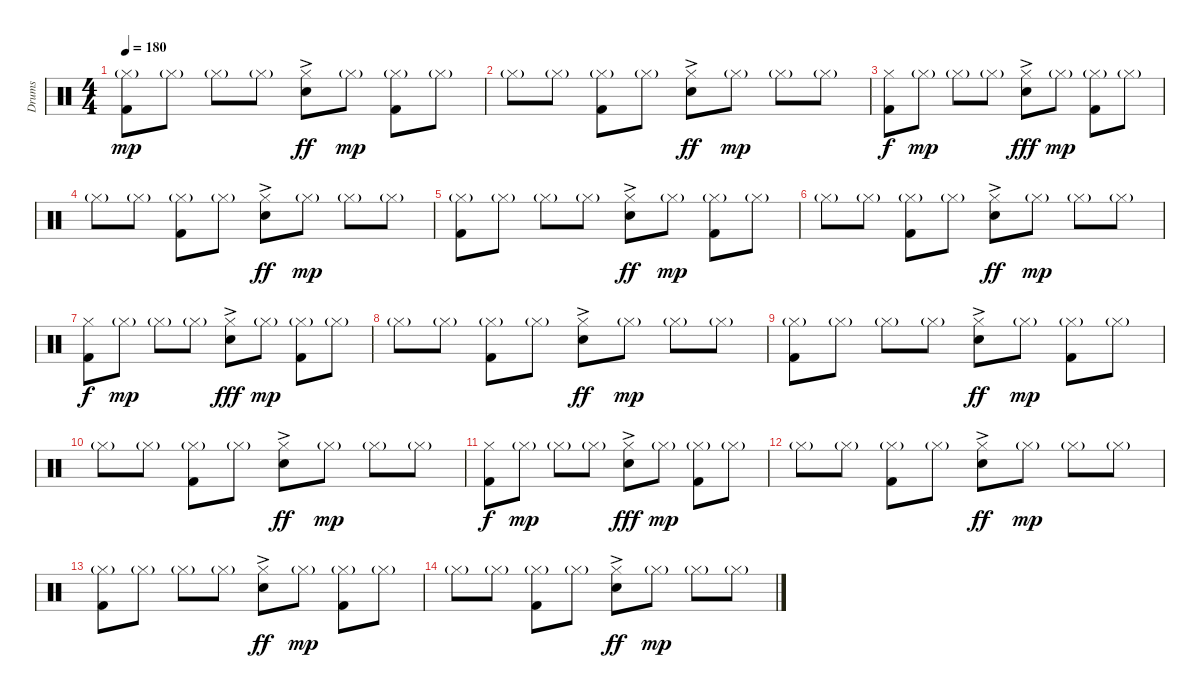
\track ("Drums" "Drums") {instrument percussion}
\staff {score}
\articulation defaults
\ts (4 4)
\tempo 180
\clef neutral
\ks c
("Hi-Hat (closed)"{g} "Kick (hit) 2").8{dy mp} "Hi-Hat (closed)"{g}.8 "Hi-Hat (closed)"{g}.8 "Hi-Hat (closed)"{g}.8 ("Hi-Hat (closed)"{ac} "Snare (hit) 2"{ac}).8{dy ff} "Hi-Hat (closed)"{g}.8{dy mp} ("Hi-Hat (closed)"{g} "Kick (hit) 2").8 "Hi-Hat (closed)"{g}.8 |
"Hi-Hat (closed)"{g}.8 "Hi-Hat (closed)"{g}.8 ("Hi-Hat (closed)"{g} "Kick (hit) 2").8 "Hi-Hat (closed)"{g}.8 ("Hi-Hat (closed)"{ac} "Snare (hit) 2"{ac}).8{dy ff} "Hi-Hat (closed)"{g}.8{dy mp} "Hi-Hat (closed)"{g}.8 "Hi-Hat (closed)"{g}.8 |
("Hi-Hat (closed)" "Kick (hit) 2").8{dy f} "Hi-Hat (closed)"{g}.8{dy mp} "Hi-Hat (closed)"{g}.8 "Hi-Hat (closed)"{g}.8 ("Hi-Hat (closed)"{ac} "Snare (hit) 2"{ac}).8{dy fff} "Hi-Hat (closed)"{g}.8{dy mp} ("Hi-Hat (closed)"{g} "Kick (hit) 2").8 "Hi-Hat (closed)"{g}.8 |
"Hi-Hat (closed)"{g}.8 "Hi-Hat (closed)"{g}.8 ("Hi-Hat (closed)"{g} "Kick (hit) 2").8 "Hi-Hat (closed)"{g}.8 ("Hi-Hat (closed)"{ac} "Snare (hit) 2"{ac}).8{dy ff} "Hi-Hat (closed)"{g}.8{dy mp} "Hi-Hat (closed)"{g}.8 "Hi-Hat (closed)"{g}.8 |
("Hi-Hat (closed)"{g} "Kick (hit) 2").8 "Hi-Hat (closed)"{g}.8 "Hi-Hat (closed)"{g}.8 "Hi-Hat (closed)"{g}.8 ("Hi-Hat (closed)"{ac} "Snare (hit) 2"{ac}).8{dy ff} "Hi-Hat (closed)"{g}.8{dy mp} ("Hi-Hat (closed)"{g} "Kick (hit) 2").8 "Hi-Hat (closed)"{g}.8 |
"Hi-Hat (closed)"{g}.8 "Hi-Hat (closed)"{g}.8 ("Hi-Hat (closed)"{g} "Kick (hit) 2").8 "Hi-Hat (closed)"{g}.8 ("Hi-Hat (closed)"{ac} "Snare (hit) 2"{ac}).8{dy ff} "Hi-Hat (closed)"{g}.8{dy mp} "Hi-Hat (closed)"{g}.8 "Hi-Hat (closed)"{g}.8 |
("Hi-Hat (closed)" "Kick (hit) 2").8{dy f} "Hi-Hat (closed)"{g}.8{dy mp} "Hi-Hat (closed)"{g}.8 "Hi-Hat (closed)"{g}.8 ("Hi-Hat (closed)"{ac} "Snare (hit) 2"{ac}).8{dy fff} "Hi-Hat (closed)"{g}.8{dy mp} ("Hi-Hat (closed)"{g} "Kick (hit) 2").8 "Hi-Hat (closed)"{g}.8 |
"Hi-Hat (closed)"{g}.8 "Hi-Hat (closed)"{g}.8 ("Hi-Hat (closed)"{g} "Kick (hit) 2").8 "Hi-Hat (closed)"{g}.8 ("Hi-Hat (closed)"{ac} "Snare (hit) 2"{ac}).8{dy ff} "Hi-Hat (closed)"{g}.8{dy mp} "Hi-Hat (closed)"{g}.8 "Hi-Hat (closed)"{g}.8 |
("Hi-Hat (closed)"{g} "Kick (hit) 2").8 "Hi-Hat (closed)"{g}.8 "Hi-Hat (closed)"{g}.8 "Hi-Hat (closed)"{g}.8 ("Hi-Hat (closed)"{ac} "Snare (hit) 2"{ac}).8{dy ff} "Hi-Hat (closed)"{g}.8{dy mp} ("Hi-Hat (closed)"{g} "Kick (hit) 2").8 "Hi-Hat (closed)"{g}.8 |
"Hi-Hat (closed)"{g}.8 "Hi-Hat (closed)"{g}.8 ("Hi-Hat (closed)"{g} "Kick (hit) 2").8 "Hi-Hat (closed)"{g}.8 ("Hi-Hat (closed)"{ac} "Snare (hit) 2"{ac}).8{dy ff} "Hi-Hat (closed)"{g}.8{dy mp} "Hi-Hat (closed)"{g}.8 "Hi-Hat (closed)"{g}.8 |
("Hi-Hat (closed)" "Kick (hit) 2").8{dy f} "Hi-Hat (closed)"{g}.8{dy mp} "Hi-Hat (closed)"{g}.8 "Hi-Hat (closed)"{g}.8 ("Hi-Hat (closed)"{ac} "Snare (hit) 2"{ac}).8{dy fff} "Hi-Hat (closed)"{g}.8{dy mp} ("Hi-Hat (closed)"{g} "Kick (hit) 2").8 "Hi-Hat (closed)"{g}.8 |
"Hi-Hat (closed)"{g}.8 "Hi-Hat (closed)"{g}.8 ("Hi-Hat (closed)"{g} "Kick (hit) 2").8 "Hi-Hat (closed)"{g}.8 ("Hi-Hat (closed)"{ac} "Snare (hit) 2"{ac}).8{dy ff} "Hi-Hat (closed)"{g}.8{dy mp} "Hi-Hat (closed)"{g}.8 "Hi-Hat (closed)"{g}.8 |
("Hi-Hat (closed)"{g} "Kick (hit) 2").8 "Hi-Hat (closed)"{g}.8 "Hi-Hat (closed)"{g}.8 "Hi-Hat (closed)"{g}.8 ("Hi-Hat (closed)"{ac} "Snare (hit) 2"{ac}).8{dy ff} "Hi-Hat (closed)"{g}.8{dy mp} ("Hi-Hat (closed)"{g} "Kick (hit) 2").8 "Hi-Hat (closed)"{g}.8 |
"Hi-Hat (closed)"{g}.8 "Hi-Hat (closed)"{g}.8 ("Hi-Hat (closed)"{g} "Kick (hit) 2").8 "Hi-Hat (closed)"{g}.8 ("Hi-Hat (closed)"{ac} "Snare (hit) 2"{ac}).8{dy ff} "Hi-Hat (closed)"{g}.8{dy mp} "Hi-Hat (closed)"{g}.8 "Hi-Hat (closed)"{g}.8
